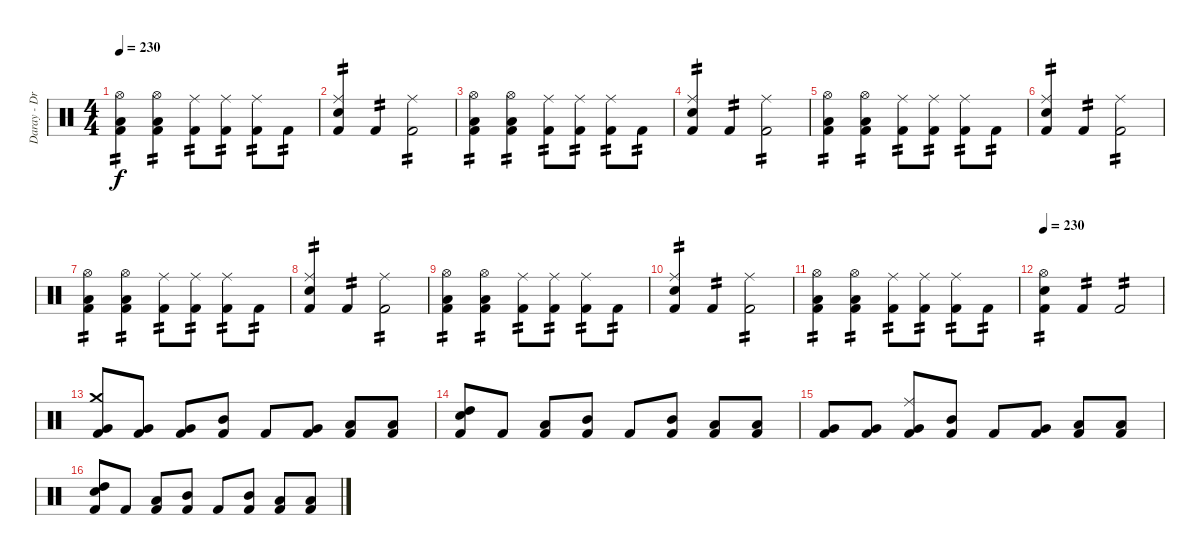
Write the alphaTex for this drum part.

\track ("Daray - Drums" "Daray - Dr") {instrument percussion}
\staff {score}
\articulation defaults
\ts (4 4)
\tempo 230
\clef neutral
\ks c
("Hi-Hat (open)" "Low Floor Tom (hit)" "Kick (hit) 2").4{tp 2 dy f} ("Hi-Hat (open)" "Low Floor Tom (hit)" "Kick (hit) 2").4{tp 2} ("Ride (middle)" "Kick (hit) 2").8{tp 2} ("Ride (middle)" "Kick (hit) 2").8{tp 2} ("Ride (middle)" "Kick (hit) 2").8{tp 2} "Kick (hit) 2".8{tp 2} |
("Ride (middle)" "Electric Snare (hit)" "Kick (hit) 2").4{tp 2} "Kick (hit) 2".4{tp 2} ("Ride (middle)" "Kick (hit) 2").2{tp 2} |
("Hi-Hat (open)" "Low Floor Tom (hit)" "Kick (hit) 2").4{tp 2} ("Hi-Hat (open)" "Low Floor Tom (hit)" "Kick (hit) 2").4{tp 2} ("Ride (middle)" "Kick (hit) 2").8{tp 2} ("Ride (middle)" "Kick (hit) 2").8{tp 2} ("Ride (middle)" "Kick (hit) 2").8{tp 2} "Kick (hit) 2".8{tp 2} |
("Ride (middle)" "Electric Snare (hit)" "Kick (hit) 2").4{tp 2} "Kick (hit) 2".4{tp 2} ("Ride (middle)" "Kick (hit) 2").2{tp 2} |
("Hi-Hat (open)" "Low Floor Tom (hit)" "Kick (hit) 2").4{tp 2} ("Hi-Hat (open)" "Low Floor Tom (hit)" "Kick (hit) 2").4{tp 2} ("Ride (middle)" "Kick (hit) 2").8{tp 2} ("Ride (middle)" "Kick (hit) 2").8{tp 2} ("Ride (middle)" "Kick (hit) 2").8{tp 2} "Kick (hit) 2".8{tp 2} |
("Ride (middle)" "Electric Snare (hit)" "Kick (hit) 2").4{tp 2} "Kick (hit) 2".4{tp 2} ("Ride (middle)" "Kick (hit) 2").2{tp 2} |
("Hi-Hat (open)" "Low Floor Tom (hit)" "Kick (hit) 2").4{tp 2} ("Hi-Hat (open)" "Low Floor Tom (hit)" "Kick (hit) 2").4{tp 2} ("Ride (middle)" "Kick (hit) 2").8{tp 2} ("Ride (middle)" "Kick (hit) 2").8{tp 2} ("Ride (middle)" "Kick (hit) 2").8{tp 2} "Kick (hit) 2".8{tp 2} |
("Ride (middle)" "Electric Snare (hit)" "Kick (hit) 2").4{tp 2} "Kick (hit) 2".4{tp 2} ("Ride (middle)" "Kick (hit) 2").2{tp 2} |
("Hi-Hat (open)" "Low Floor Tom (hit)" "Kick (hit) 2").4{tp 2} ("Hi-Hat (open)" "Low Floor Tom (hit)" "Kick (hit) 2").4{tp 2} ("Ride (middle)" "Kick (hit) 2").8{tp 2} ("Ride (middle)" "Kick (hit) 2").8{tp 2} ("Ride (middle)" "Kick (hit) 2").8{tp 2} "Kick (hit) 2".8{tp 2} |
("Ride (middle)" "Electric Snare (hit)" "Kick (hit) 2").4{tp 2} "Kick (hit) 2".4{tp 2} ("Ride (middle)" "Kick (hit) 2").2{tp 2} |
("Hi-Hat (open)" "Low Floor Tom (hit)" "Kick (hit) 2").4{tp 2} ("Hi-Hat (open)" "Low Floor Tom (hit)" "Kick (hit) 2").4{tp 2} ("Ride (middle)" "Kick (hit) 2").8{tp 2} ("Ride (middle)" "Kick (hit) 2").8{tp 2} ("Ride (middle)" "Kick (hit) 2").8{tp 2} "Kick (hit) 2".8{tp 2} |
\tempo 230
("Hi-Hat (open)" "Electric Snare (hit)" "Kick (hit) 2").4{tp 2} "Kick (hit) 2".4{tp 2} "Kick (hit) 2".2{tp 2} |
("Crash medium (hit)" "Very Low Tom (hit)" "Kick (hit) 2").8 ("Very Low Tom (hit)" "Kick (hit) 2").8 ("Very Low Tom (hit)" "Kick (hit) 2").8 ("Mid Tom (hit)" "Kick (hit) 2").8 "Kick (hit) 2".8 ("Very Low Tom (hit)" "Kick (hit) 2").8 ("Low Tom (hit)" "Kick (hit) 2").8 ("Low Tom (hit)" "Kick (hit) 2").8 |
("Electric Snare (hit)" "High Tom (hit)" "Kick (hit) 2").8 "Kick (hit) 2".8 ("Low Tom (hit)" "Kick (hit) 2").8 ("Mid Tom (hit)" "Kick (hit) 2").8 "Kick (hit) 2".8 ("Mid Tom (hit)" "Kick (hit) 2").8 ("Low Tom (hit)" "Kick (hit) 2").8 ("Low Tom (hit)" "Kick (hit) 2").8 |
("Very Low Tom (hit)" "Kick (hit) 2").8 ("Very Low Tom (hit)" "Kick (hit) 2").8 ("Ride (middle)" "Very Low Tom (hit)" "Kick (hit) 2").8 ("Mid Tom (hit)" "Kick (hit) 2").8 "Kick (hit) 2".8 ("Very Low Tom (hit)" "Kick (hit) 2").8 ("Low Tom (hit)" "Kick (hit) 2").8 ("Low Tom (hit)" "Kick (hit) 2").8 |
("Electric Snare (hit)" "High Tom (hit)" "Kick (hit) 2").8 "Kick (hit) 2".8 ("Low Tom (hit)" "Kick (hit) 2").8 ("Mid Tom (hit)" "Kick (hit) 2").8 "Kick (hit) 2".8 ("Mid Tom (hit)" "Kick (hit) 2").8 ("Low Tom (hit)" "Kick (hit) 2").8 ("Low Tom (hit)" "Kick (hit) 2").8
